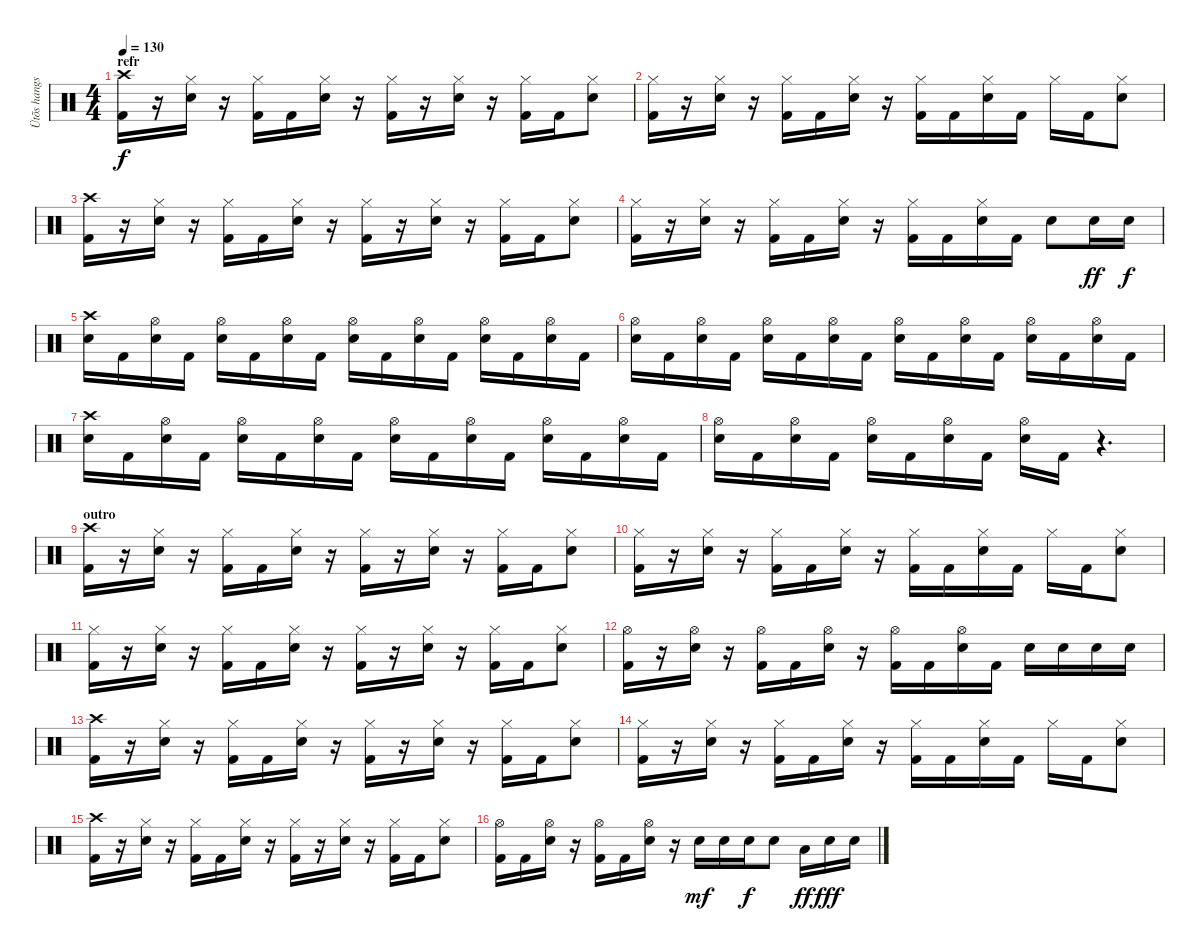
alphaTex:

\track ("Ütõs hangszer" "Ütõs hangs") {instrument percussion}
\staff {score}
\articulation defaults
\ts (4 4)
\section ("" "refr")
\tempo 130
\clef neutral
\ks c
("Crash high (hit)" "Kick (hit) 2").16{dy f} r.16 ("Hi-Hat (closed)" "Snare (hit) 2").16 r.16 ("Hi-Hat (closed)" "Kick (hit) 2").16 "Kick (hit) 2".16 ("Hi-Hat (closed)" "Snare (hit) 2").16 r.16 ("Hi-Hat (closed)" "Kick (hit) 2").16 r.16 ("Hi-Hat (closed)" "Snare (hit) 2").16 r.16 ("Hi-Hat (closed)" "Kick (hit) 2").16 "Kick (hit) 2".16 ("Hi-Hat (closed)" "Snare (hit) 2").8 |
("Hi-Hat (closed)" "Kick (hit) 2").16 r.16 ("Hi-Hat (closed)" "Snare (hit) 2").16 r.16 ("Hi-Hat (closed)" "Kick (hit) 2").16 "Kick (hit) 2".16 ("Hi-Hat (closed)" "Snare (hit) 2").16 r.16 ("Hi-Hat (closed)" "Kick (hit) 2").16 "Kick (hit) 2".16 ("Hi-Hat (closed)" "Snare (hit) 2").16 "Kick (hit) 2".16 "Hi-Hat (closed)".16 "Kick (hit) 2".16 ("Hi-Hat (closed)" "Snare (hit) 2").8 |
("Crash high (hit)" "Kick (hit) 2").16 r.16 ("Hi-Hat (closed)" "Snare (hit) 2").16 r.16 ("Hi-Hat (closed)" "Kick (hit) 2").16 "Kick (hit) 2".16 ("Hi-Hat (closed)" "Snare (hit) 2").16 r.16 ("Hi-Hat (closed)" "Kick (hit) 2").16 r.16 ("Hi-Hat (closed)" "Snare (hit) 2").16 r.16 ("Hi-Hat (closed)" "Kick (hit) 2").16 "Kick (hit) 2".16 ("Hi-Hat (closed)" "Snare (hit) 2").8 |
("Hi-Hat (closed)" "Kick (hit) 2").16 r.16 ("Hi-Hat (closed)" "Snare (hit) 2").16 r.16 ("Hi-Hat (closed)" "Kick (hit) 2").16 "Kick (hit) 2".16 ("Hi-Hat (closed)" "Snare (hit) 2").16 r.16 ("Hi-Hat (closed)" "Kick (hit) 2").16 "Kick (hit) 2".16 ("Hi-Hat (closed)" "Snare (hit) 2").16 "Kick (hit) 2".16 "Snare (hit) 2".8 "Snare (hit) 2".16{dy ff} "Snare (hit) 2".16{dy f} |
("Crash high (hit)" "Snare (hit) 2").16 "Kick (hit) 2".16 ("Hi-Hat (open)" "Snare (hit) 2").16 "Kick (hit) 2".16 ("Hi-Hat (open)" "Snare (hit) 2").16 "Kick (hit) 2".16 ("Hi-Hat (open)" "Snare (hit) 2").16 "Kick (hit) 2".16 ("Hi-Hat (open)" "Snare (hit) 2").16 "Kick (hit) 2".16 ("Hi-Hat (open)" "Snare (hit) 2").16 "Kick (hit) 2".16 ("Hi-Hat (open)" "Snare (hit) 2").16 "Kick (hit) 2".16 ("Hi-Hat (open)" "Snare (hit) 2").16 "Kick (hit) 2".16 |
("Hi-Hat (open)" "Snare (hit) 2").16 "Kick (hit) 2".16 ("Hi-Hat (open)" "Snare (hit) 2").16 "Kick (hit) 2".16 ("Hi-Hat (open)" "Snare (hit) 2").16 "Kick (hit) 2".16 ("Hi-Hat (open)" "Snare (hit) 2").16 "Kick (hit) 2".16 ("Hi-Hat (open)" "Snare (hit) 2").16 "Kick (hit) 2".16 ("Hi-Hat (open)" "Snare (hit) 2").16 "Kick (hit) 2".16 ("Hi-Hat (open)" "Snare (hit) 2").16 "Kick (hit) 2".16 ("Hi-Hat (open)" "Snare (hit) 2").16 "Kick (hit) 2".16 |
("Crash high (hit)" "Snare (hit) 2").16 "Kick (hit) 2".16 ("Hi-Hat (open)" "Snare (hit) 2").16 "Kick (hit) 2".16 ("Hi-Hat (open)" "Snare (hit) 2").16 "Kick (hit) 2".16 ("Hi-Hat (open)" "Snare (hit) 2").16 "Kick (hit) 2".16 ("Hi-Hat (open)" "Snare (hit) 2").16 "Kick (hit) 2".16 ("Hi-Hat (open)" "Snare (hit) 2").16 "Kick (hit) 2".16 ("Hi-Hat (open)" "Snare (hit) 2").16 "Kick (hit) 2".16 ("Hi-Hat (open)" "Snare (hit) 2").16 "Kick (hit) 2".16 |
("Hi-Hat (open)" "Snare (hit) 2").16 "Kick (hit) 2".16 ("Hi-Hat (open)" "Snare (hit) 2").16 "Kick (hit) 2".16 ("Hi-Hat (open)" "Snare (hit) 2").16 "Kick (hit) 2".16 ("Hi-Hat (open)" "Snare (hit) 2").16 "Kick (hit) 2".16 ("Hi-Hat (open)" "Snare (hit) 2").16 "Kick (hit) 2".16 r.4{d} |
\section ("" "outro")
("Crash high (hit)" "Kick (hit) 2").16 r.16 ("Hi-Hat (closed)" "Snare (hit) 2").16 r.16 ("Hi-Hat (closed)" "Kick (hit) 2").16 "Kick (hit) 2".16 ("Hi-Hat (closed)" "Snare (hit) 2").16 r.16 ("Hi-Hat (closed)" "Kick (hit) 2").16 r.16 ("Hi-Hat (closed)" "Snare (hit) 2").16 r.16 ("Hi-Hat (closed)" "Kick (hit) 2").16 "Kick (hit) 2".16 ("Hi-Hat (closed)" "Snare (hit) 2").8 |
("Hi-Hat (closed)" "Kick (hit) 2").16 r.16 ("Hi-Hat (closed)" "Snare (hit) 2").16 r.16 ("Hi-Hat (closed)" "Kick (hit) 2").16 "Kick (hit) 2".16 ("Hi-Hat (closed)" "Snare (hit) 2").16 r.16 ("Hi-Hat (closed)" "Kick (hit) 2").16 "Kick (hit) 2".16 ("Hi-Hat (closed)" "Snare (hit) 2").16 "Kick (hit) 2".16 "Hi-Hat (closed)".16 "Kick (hit) 2".16 ("Hi-Hat (closed)" "Snare (hit) 2").8 |
("Hi-Hat (closed)" "Kick (hit) 2").16 r.16 ("Hi-Hat (closed)" "Snare (hit) 2").16 r.16 ("Hi-Hat (closed)" "Kick (hit) 2").16 "Kick (hit) 2".16 ("Hi-Hat (closed)" "Snare (hit) 2").16 r.16 ("Hi-Hat (closed)" "Kick (hit) 2").16 r.16 ("Hi-Hat (closed)" "Snare (hit) 2").16 r.16 ("Hi-Hat (closed)" "Kick (hit) 2").16 "Kick (hit) 2".16 ("Hi-Hat (closed)" "Snare (hit) 2").8 |
("Hi-Hat (open)" "Kick (hit) 2").16 r.16 ("Hi-Hat (open)" "Snare (hit) 2").16 r.16 ("Hi-Hat (open)" "Kick (hit) 2").16 "Kick (hit) 2".16 ("Hi-Hat (open)" "Snare (hit) 2").16 r.16 ("Hi-Hat (open)" "Kick (hit) 2").16 "Kick (hit) 2".16 ("Hi-Hat (open)" "Snare (hit) 2").16 "Kick (hit) 2".16 "Snare (hit) 2".16 "Snare (hit) 2".16 "Snare (hit) 2".16 "Snare (hit) 2".16 |
("Crash high (hit)" "Kick (hit) 2").16 r.16 ("Hi-Hat (closed)" "Snare (hit) 2").16 r.16 ("Hi-Hat (closed)" "Kick (hit) 2").16 "Kick (hit) 2".16 ("Hi-Hat (closed)" "Snare (hit) 2").16 r.16 ("Hi-Hat (closed)" "Kick (hit) 2").16 r.16 ("Hi-Hat (closed)" "Snare (hit) 2").16 r.16 ("Hi-Hat (closed)" "Kick (hit) 2").16 "Kick (hit) 2".16 ("Hi-Hat (closed)" "Snare (hit) 2").8 |
("Hi-Hat (closed)" "Kick (hit) 2").16 r.16 ("Hi-Hat (closed)" "Snare (hit) 2").16 r.16 ("Hi-Hat (closed)" "Kick (hit) 2").16 "Kick (hit) 2".16 ("Hi-Hat (closed)" "Snare (hit) 2").16 r.16 ("Hi-Hat (closed)" "Kick (hit) 2").16 "Kick (hit) 2".16 ("Hi-Hat (closed)" "Snare (hit) 2").16 "Kick (hit) 2".16 "Hi-Hat (closed)".16 "Kick (hit) 2".16 ("Hi-Hat (closed)" "Snare (hit) 2").8 |
("Crash high (hit)" "Kick (hit) 2").16 r.16 ("Hi-Hat (closed)" "Snare (hit) 2").16 r.16 ("Hi-Hat (closed)" "Kick (hit) 2").16 "Kick (hit) 2".16 ("Hi-Hat (closed)" "Snare (hit) 2").16 r.16 ("Hi-Hat (closed)" "Kick (hit) 2").16 r.16 ("Hi-Hat (closed)" "Snare (hit) 2").16 r.16 ("Hi-Hat (closed)" "Kick (hit) 2").16 "Kick (hit) 2".16 ("Hi-Hat (closed)" "Snare (hit) 2").8 |
("Hi-Hat (open)" "Kick (hit) 2").16 "Kick (hit) 2".16 ("Hi-Hat (open)" "Snare (hit) 2").16 r.16 ("Hi-Hat (open)" "Kick (hit) 2").16 "Kick (hit) 2".16 ("Hi-Hat (open)" "Snare (hit) 2").16 r.16 "Snare (hit) 2".16{dy mf} "Snare (hit) 2".16 "Snare (hit) 2".16{dy f} "Snare (hit) 2".8 "Low Tom (hit)".16{dy ff} "Snare (hit) 2".16{dy fff} "Snare (hit) 2".16
